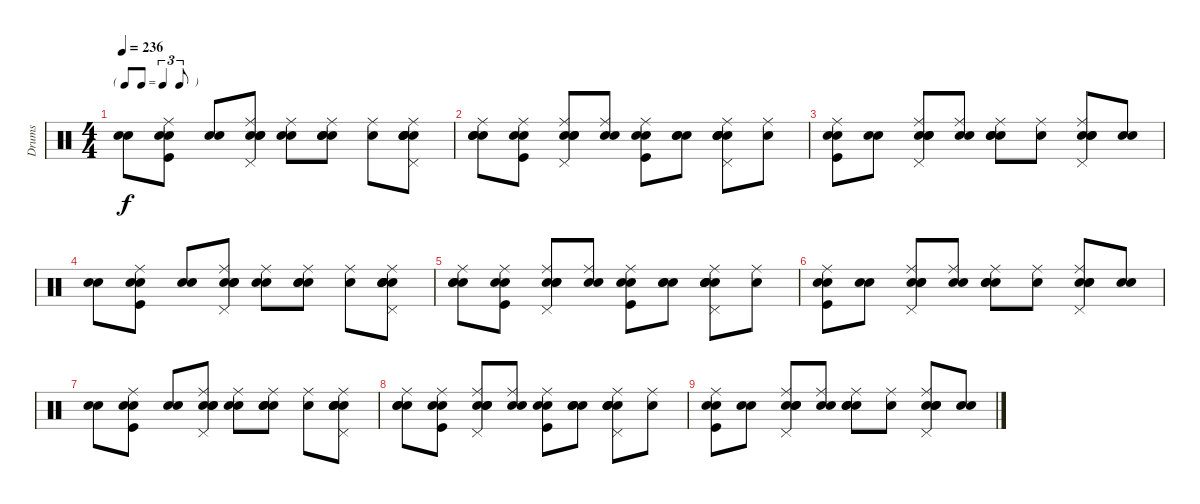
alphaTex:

\track ("Drums" "Drums") {instrument percussion}
\staff {score}
\articulation defaults
\ts (4 4)
\tf triplet8th
\tempo 236
\clef neutral
\ks c
("Snare (hit)" "Snare (hit) 2").8{dy f} ("Snare (hit)" "Kick (hit)" "Electric Snare (hit)" "Ride (middle)").8 ("Snare (hit)" "Electric Snare (hit)").8 ("Snare (hit)" "Snare (hit) 2" "Electric Snare (hit)" "Ride (middle)" "Pedal Hi-Hat (hit)").8 ("Snare (hit)" "Snare (hit) 2" "Ride (middle)").8 ("Snare (hit)" "Snare (hit) 2" "Electric Snare (hit)" "Ride (middle)").8 ("Snare (hit)" "Ride (middle)").8 ("Snare (hit)" "Snare (hit) 2" "Electric Snare (hit)" "Ride (middle)" "Pedal Hi-Hat (hit)" "Hand Clap (hit)").8 |
("Snare (hit)" "Snare (hit) 2" "Ride (middle)" "Hand Clap (hit)").8 ("Snare (hit)" "Kick (hit)" "Electric Snare (hit)" "Ride (middle)").8 ("Snare (hit)" "Snare (hit) 2" "Electric Snare (hit)" "Ride (middle)" "Pedal Hi-Hat (hit)").8 ("Snare (hit)" "Snare (hit) 2" "Ride (middle)").8 ("Snare (hit)" "Kick (hit)" "Electric Snare (hit)" "Ride (middle)").8 ("Snare (hit)" "Electric Snare (hit)" "Hand Clap (hit)").8 ("Snare (hit)" "Snare (hit) 2" "Electric Snare (hit)" "Ride (middle)" "Pedal Hi-Hat (hit)" "Hand Clap (hit)").8 ("Snare (hit)" "Ride (middle)").8 |
("Snare (hit)" "Kick (hit)" "Electric Snare (hit)" "Ride (middle)").8 ("Snare (hit)" "Electric Snare (hit)").8 ("Snare (hit)" "Snare (hit) 2" "Electric Snare (hit)" "Ride (middle)" "Pedal Hi-Hat (hit)").8 ("Snare (hit)" "Snare (hit) 2" "Ride (middle)").8 ("Snare (hit)" "Snare (hit) 2" "Electric Snare (hit)" "Ride (middle)").8 ("Snare (hit)" "Ride (middle)").8 ("Snare (hit)" "Snare (hit) 2" "Electric Snare (hit)" "Ride (middle)" "Pedal Hi-Hat (hit)").8 ("Snare (hit)" "Snare (hit) 2").8 |
("Snare (hit)" "Snare (hit) 2").8 ("Snare (hit)" "Kick (hit)" "Electric Snare (hit)" "Ride (middle)").8 ("Snare (hit)" "Electric Snare (hit)").8 ("Snare (hit)" "Snare (hit) 2" "Electric Snare (hit)" "Ride (middle)" "Pedal Hi-Hat (hit)").8 ("Snare (hit)" "Snare (hit) 2" "Ride (middle)").8 ("Snare (hit)" "Snare (hit) 2" "Electric Snare (hit)" "Ride (middle)").8 ("Snare (hit)" "Ride (middle)").8 ("Snare (hit)" "Snare (hit) 2" "Electric Snare (hit)" "Ride (middle)" "Pedal Hi-Hat (hit)" "Hand Clap (hit)").8 |
("Snare (hit)" "Snare (hit) 2" "Ride (middle)" "Hand Clap (hit)").8 ("Snare (hit)" "Kick (hit)" "Electric Snare (hit)" "Ride (middle)").8 ("Snare (hit)" "Snare (hit) 2" "Electric Snare (hit)" "Ride (middle)" "Pedal Hi-Hat (hit)").8 ("Snare (hit)" "Snare (hit) 2" "Ride (middle)").8 ("Snare (hit)" "Kick (hit)" "Electric Snare (hit)" "Ride (middle)").8 ("Snare (hit)" "Electric Snare (hit)" "Hand Clap (hit)").8 ("Snare (hit)" "Snare (hit) 2" "Electric Snare (hit)" "Ride (middle)" "Pedal Hi-Hat (hit)" "Hand Clap (hit)").8 ("Snare (hit)" "Ride (middle)").8 |
("Snare (hit)" "Kick (hit)" "Electric Snare (hit)" "Ride (middle)").8 ("Snare (hit)" "Electric Snare (hit)").8 ("Snare (hit)" "Snare (hit) 2" "Electric Snare (hit)" "Ride (middle)" "Pedal Hi-Hat (hit)").8 ("Snare (hit)" "Snare (hit) 2" "Ride (middle)").8 ("Snare (hit)" "Snare (hit) 2" "Electric Snare (hit)" "Ride (middle)").8 ("Snare (hit)" "Ride (middle)").8 ("Snare (hit)" "Snare (hit) 2" "Electric Snare (hit)" "Ride (middle)" "Pedal Hi-Hat (hit)").8 ("Snare (hit)" "Snare (hit) 2").8 |
("Snare (hit)" "Snare (hit) 2").8 ("Snare (hit)" "Kick (hit)" "Electric Snare (hit)" "Ride (middle)").8 ("Snare (hit)" "Electric Snare (hit)").8 ("Snare (hit)" "Snare (hit) 2" "Electric Snare (hit)" "Ride (middle)" "Pedal Hi-Hat (hit)").8 ("Snare (hit)" "Snare (hit) 2" "Ride (middle)").8 ("Snare (hit)" "Snare (hit) 2" "Electric Snare (hit)" "Ride (middle)").8 ("Snare (hit)" "Ride (middle)").8 ("Snare (hit)" "Snare (hit) 2" "Electric Snare (hit)" "Ride (middle)" "Pedal Hi-Hat (hit)" "Hand Clap (hit)").8 |
("Snare (hit)" "Snare (hit) 2" "Ride (middle)" "Hand Clap (hit)").8 ("Snare (hit)" "Kick (hit)" "Electric Snare (hit)" "Ride (middle)").8 ("Snare (hit)" "Snare (hit) 2" "Electric Snare (hit)" "Ride (middle)" "Pedal Hi-Hat (hit)").8 ("Snare (hit)" "Snare (hit) 2" "Ride (middle)").8 ("Snare (hit)" "Kick (hit)" "Electric Snare (hit)" "Ride (middle)").8 ("Snare (hit)" "Electric Snare (hit)" "Hand Clap (hit)").8 ("Snare (hit)" "Snare (hit) 2" "Electric Snare (hit)" "Ride (middle)" "Pedal Hi-Hat (hit)" "Hand Clap (hit)").8 ("Snare (hit)" "Ride (middle)").8 |
("Snare (hit)" "Kick (hit)" "Electric Snare (hit)" "Ride (middle)").8 ("Snare (hit)" "Electric Snare (hit)").8 ("Snare (hit)" "Snare (hit) 2" "Electric Snare (hit)" "Ride (middle)" "Pedal Hi-Hat (hit)").8 ("Snare (hit)" "Snare (hit) 2" "Ride (middle)").8 ("Snare (hit)" "Snare (hit) 2" "Electric Snare (hit)" "Ride (middle)").8 ("Snare (hit)" "Ride (middle)").8 ("Snare (hit)" "Snare (hit) 2" "Electric Snare (hit)" "Ride (middle)" "Pedal Hi-Hat (hit)").8 ("Snare (hit)" "Snare (hit) 2").8
